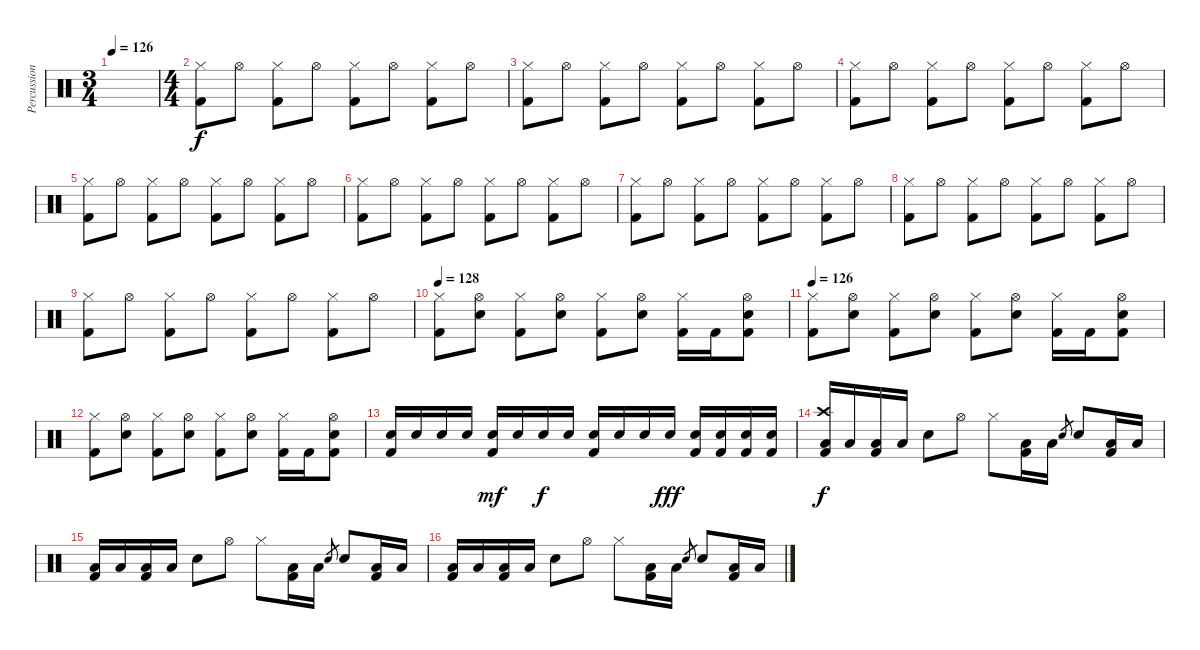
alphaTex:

\track ("Percussion" "Percussion") {instrument percussion}
\staff {score}
\articulation defaults
\ts (3 4)
\tempo 126
\clef neutral
\ks c
|
\ts (4 4)
("Hi-Hat (closed)" "Kick (hit) 2").8 "Hi-Hat (open)".8 ("Hi-Hat (closed)" "Kick (hit) 2").8 "Hi-Hat (open)".8 ("Hi-Hat (closed)" "Kick (hit) 2").8 "Hi-Hat (open)".8 ("Hi-Hat (closed)" "Kick (hit) 2").8 "Hi-Hat (open)".8 |
("Hi-Hat (closed)" "Kick (hit) 2").8 "Hi-Hat (open)".8 ("Hi-Hat (closed)" "Kick (hit) 2").8 "Hi-Hat (open)".8 ("Hi-Hat (closed)" "Kick (hit) 2").8 "Hi-Hat (open)".8 ("Hi-Hat (closed)" "Kick (hit) 2").8 "Hi-Hat (open)".8 |
("Hi-Hat (closed)" "Kick (hit) 2").8 "Hi-Hat (open)".8 ("Hi-Hat (closed)" "Kick (hit) 2").8 "Hi-Hat (open)".8 ("Hi-Hat (closed)" "Kick (hit) 2").8 "Hi-Hat (open)".8 ("Hi-Hat (closed)" "Kick (hit) 2").8 "Hi-Hat (open)".8 |
("Hi-Hat (closed)" "Kick (hit) 2").8 "Hi-Hat (open)".8 ("Hi-Hat (closed)" "Kick (hit) 2").8 "Hi-Hat (open)".8 ("Hi-Hat (closed)" "Kick (hit) 2").8 "Hi-Hat (open)".8 ("Hi-Hat (closed)" "Kick (hit) 2").8 "Hi-Hat (open)".8 |
("Hi-Hat (closed)" "Kick (hit) 2").8 "Hi-Hat (open)".8 ("Hi-Hat (closed)" "Kick (hit) 2").8 "Hi-Hat (open)".8 ("Hi-Hat (closed)" "Kick (hit) 2").8 "Hi-Hat (open)".8 ("Hi-Hat (closed)" "Kick (hit) 2").8 "Hi-Hat (open)".8 |
("Hi-Hat (closed)" "Kick (hit) 2").8 "Hi-Hat (open)".8 ("Hi-Hat (closed)" "Kick (hit) 2").8 "Hi-Hat (open)".8 ("Hi-Hat (closed)" "Kick (hit) 2").8 "Hi-Hat (open)".8 ("Hi-Hat (closed)" "Kick (hit) 2").8 "Hi-Hat (open)".8 |
("Hi-Hat (closed)" "Kick (hit) 2").8 "Hi-Hat (open)".8 ("Hi-Hat (closed)" "Kick (hit) 2").8 "Hi-Hat (open)".8 ("Hi-Hat (closed)" "Kick (hit) 2").8 "Hi-Hat (open)".8 ("Hi-Hat (closed)" "Kick (hit) 2").8 "Hi-Hat (open)".8 |
("Hi-Hat (closed)" "Kick (hit) 2").8 "Hi-Hat (open)".8 ("Hi-Hat (closed)" "Kick (hit) 2").8 "Hi-Hat (open)".8 ("Hi-Hat (closed)" "Kick (hit) 2").8 "Hi-Hat (open)".8 ("Hi-Hat (closed)" "Kick (hit) 2").8 "Hi-Hat (open)".8 |
\tempo 128
("Hi-Hat (closed)" "Kick (hit) 2").8 ("Snare (hit) 2" "Hi-Hat (open)").8 ("Hi-Hat (closed)" "Kick (hit) 2").8 ("Snare (hit) 2" "Hi-Hat (open)").8 ("Hi-Hat (closed)" "Kick (hit) 2").8 ("Snare (hit) 2" "Hi-Hat (open)").8 ("Hi-Hat (closed)" "Kick (hit) 2").16 "Kick (hit) 2".16 ("Snare (hit) 2" "Hi-Hat (open)" "Kick (hit) 2").8 |
\tempo 126
("Hi-Hat (closed)" "Kick (hit) 2").8 ("Snare (hit) 2" "Hi-Hat (open)").8 ("Hi-Hat (closed)" "Kick (hit) 2").8 ("Snare (hit) 2" "Hi-Hat (open)").8 ("Hi-Hat (closed)" "Kick (hit) 2").8 ("Snare (hit) 2" "Hi-Hat (open)").8 ("Hi-Hat (closed)" "Kick (hit) 2").16 "Kick (hit) 2".16 ("Snare (hit) 2" "Hi-Hat (open)" "Kick (hit) 2").8 |
("Hi-Hat (closed)" "Kick (hit) 2").8 ("Snare (hit) 2" "Hi-Hat (open)").8 ("Hi-Hat (closed)" "Kick (hit) 2").8 ("Snare (hit) 2" "Hi-Hat (open)").8 ("Hi-Hat (closed)" "Kick (hit) 2").8 ("Snare (hit) 2" "Hi-Hat (open)").8 ("Hi-Hat (closed)" "Kick (hit) 2").16 "Kick (hit) 2".16 ("Snare (hit) 2" "Hi-Hat (open)" "Kick (hit) 2").8 |
("Snare (hit) 2" "Kick (hit) 2").16 "Snare (hit) 2".16 "Snare (hit) 2".16 "Snare (hit) 2".16 ("Snare (hit) 2" "Kick (hit) 2").16{dy mf} "Snare (hit) 2".16 "Snare (hit) 2".16{dy f} "Snare (hit) 2".16 ("Snare (hit) 2" "Kick (hit) 2").16 "Snare (hit) 2".16 "Snare (hit) 2".16 "Snare (hit) 2".16{dy fff} ("Snare (hit) 2" "Kick (hit) 2").16 ("Snare (hit) 2" "Kick (hit) 2").16 ("Snare (hit) 2" "Kick (hit) 2").16 ("Snare (hit) 2" "Kick (hit) 2").16 |
("Crash high (hit)" "Low Floor Tom (hit)" "Kick (hit) 2").16{dy f} "Low Floor Tom (hit)".16 ("Low Floor Tom (hit)" "Kick (hit) 2").16 "Low Floor Tom (hit)".16 "Snare (hit) 2".8 "Hi-Hat (open)".8 "Hi-Hat (closed)".8 ("Low Floor Tom (hit)" "Kick (hit) 2").16 "Low Floor Tom (hit)".16 "Snare (hit) 2".8{gr} "Snare (hit) 2".8 ("Low Floor Tom (hit)" "Kick (hit) 2").16 "Low Floor Tom (hit)".16 |
("Low Floor Tom (hit)" "Kick (hit) 2").16 "Low Floor Tom (hit)".16 ("Low Floor Tom (hit)" "Kick (hit) 2").16 "Low Floor Tom (hit)".16 "Snare (hit) 2".8 "Hi-Hat (open)".8 "Hi-Hat (closed)".8 ("Low Floor Tom (hit)" "Kick (hit) 2").16 "Low Floor Tom (hit)".16 "Snare (hit) 2".8{gr} "Snare (hit) 2".8 ("Low Floor Tom (hit)" "Kick (hit) 2").16 "Low Floor Tom (hit)".16 |
("Low Floor Tom (hit)" "Kick (hit) 2").16 "Low Floor Tom (hit)".16 ("Low Floor Tom (hit)" "Kick (hit) 2").16 "Low Floor Tom (hit)".16 "Snare (hit) 2".8 "Hi-Hat (open)".8 "Hi-Hat (closed)".8 ("Low Floor Tom (hit)" "Kick (hit) 2").16 "Low Floor Tom (hit)".16 "Snare (hit) 2".8{gr} "Snare (hit) 2".8 ("Low Floor Tom (hit)" "Kick (hit) 2").16 "Low Floor Tom (hit)".16
